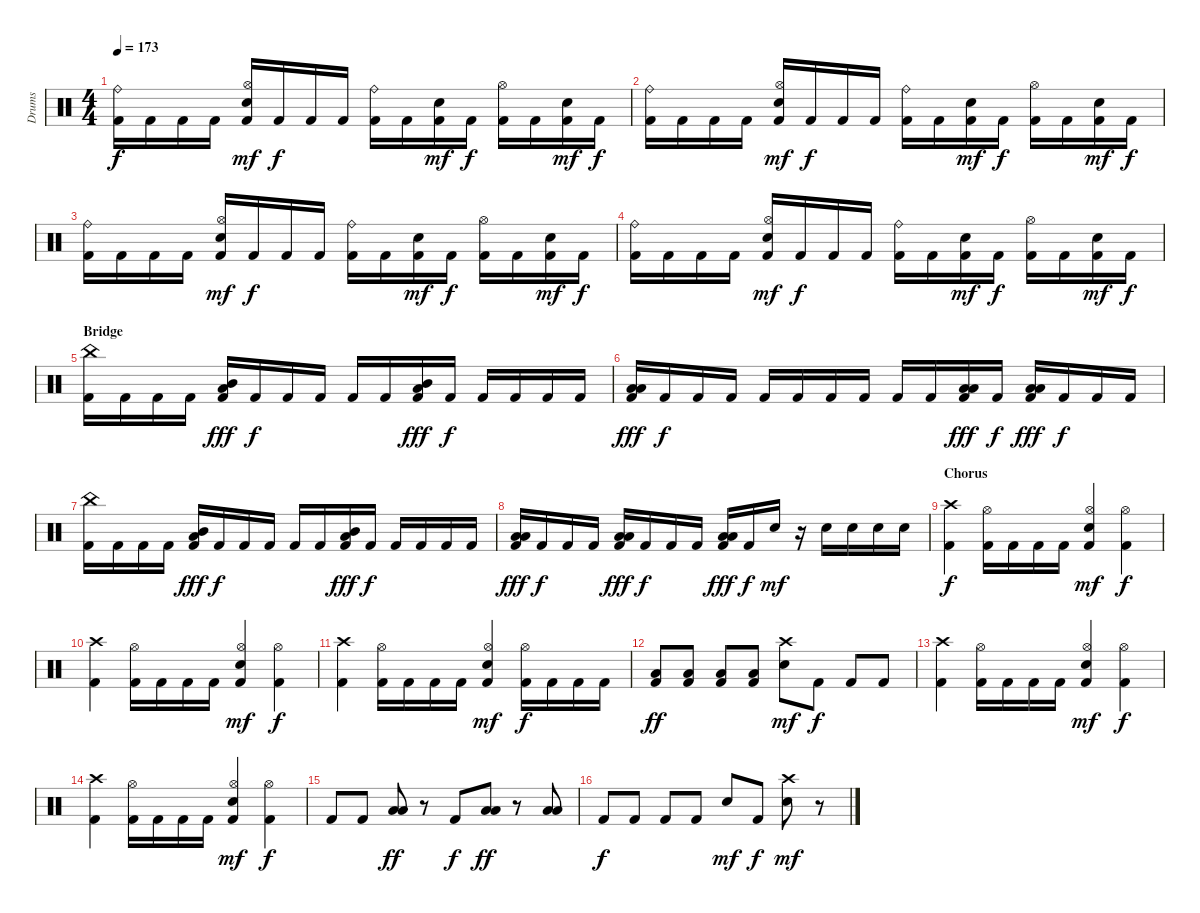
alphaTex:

\track ("Drums" "Drums") {instrument percussion}
\staff {score}
\articulation defaults
\ts (4 4)
\tempo 173
\clef neutral
\ks c
("Ride (bell)" "Kick (hit) 2").16{dy f} "Kick (hit) 2".16 "Kick (hit) 2".16 "Kick (hit) 2".16 ("Hi-Hat (open)" "Snare (hit) 2" "Kick (hit) 2").16{dy mf} "Kick (hit) 2".16{dy f} "Kick (hit) 2".16 "Kick (hit) 2".16 ("Ride (bell)" "Kick (hit) 2").16 "Kick (hit) 2".16 ("Snare (hit) 2" "Kick (hit) 2").16{dy mf} "Kick (hit) 2".16{dy f} ("Hi-Hat (open)" "Kick (hit) 2").16 "Kick (hit) 2".16 ("Snare (hit) 2" "Kick (hit) 2").16{dy mf} "Kick (hit) 2".16{dy f} |
("Ride (bell)" "Kick (hit) 2").16 "Kick (hit) 2".16 "Kick (hit) 2".16 "Kick (hit) 2".16 ("Hi-Hat (open)" "Snare (hit) 2" "Kick (hit) 2").16{dy mf} "Kick (hit) 2".16{dy f} "Kick (hit) 2".16 "Kick (hit) 2".16 ("Ride (bell)" "Kick (hit) 2").16 "Kick (hit) 2".16 ("Snare (hit) 2" "Kick (hit) 2").16{dy mf} "Kick (hit) 2".16{dy f} ("Hi-Hat (open)" "Kick (hit) 2").16 "Kick (hit) 2".16 ("Snare (hit) 2" "Kick (hit) 2").16{dy mf} "Kick (hit) 2".16{dy f} |
("Ride (bell)" "Kick (hit) 2").16 "Kick (hit) 2".16 "Kick (hit) 2".16 "Kick (hit) 2".16 ("Hi-Hat (open)" "Snare (hit) 2" "Kick (hit) 2").16{dy mf} "Kick (hit) 2".16{dy f} "Kick (hit) 2".16 "Kick (hit) 2".16 ("Ride (bell)" "Kick (hit) 2").16 "Kick (hit) 2".16 ("Snare (hit) 2" "Kick (hit) 2").16{dy mf} "Kick (hit) 2".16{dy f} ("Hi-Hat (open)" "Kick (hit) 2").16 "Kick (hit) 2".16 ("Snare (hit) 2" "Kick (hit) 2").16{dy mf} "Kick (hit) 2".16{dy f} |
("Ride (bell)" "Kick (hit) 2").16 "Kick (hit) 2".16 "Kick (hit) 2".16 "Kick (hit) 2".16 ("Hi-Hat (open)" "Snare (hit) 2" "Kick (hit) 2").16{dy mf} "Kick (hit) 2".16{dy f} "Kick (hit) 2".16 "Kick (hit) 2".16 ("Ride (bell)" "Kick (hit) 2").16 "Kick (hit) 2".16 ("Snare (hit) 2" "Kick (hit) 2").16{dy mf} "Kick (hit) 2".16{dy f} ("Hi-Hat (open)" "Kick (hit) 2").16 "Kick (hit) 2".16 ("Snare (hit) 2" "Kick (hit) 2").16{dy mf} "Kick (hit) 2".16{dy f} |
\section ("" "Bridge")
("China (hit)" "Kick (hit) 2").16 "Kick (hit) 2".16 "Kick (hit) 2".16 "Kick (hit) 2".16 ("Mid Tom (hit)" "Low Floor Tom (hit)" "Kick (hit) 2").16{dy fff} "Kick (hit) 2".16{dy f} "Kick (hit) 2".16 "Kick (hit) 2".16 "Kick (hit) 2".16 "Kick (hit) 2".16 ("Mid Tom (hit)" "Low Floor Tom (hit)" "Kick (hit) 2").16{dy fff} "Kick (hit) 2".16{dy f} "Kick (hit) 2".16 "Kick (hit) 2".16 "Kick (hit) 2".16 "Kick (hit) 2".16 |
("Low Tom (hit)" "Low Floor Tom (hit)" "Kick (hit) 2").16{dy fff} "Kick (hit) 2".16{dy f} "Kick (hit) 2".16 "Kick (hit) 2".16 "Kick (hit) 2".16 "Kick (hit) 2".16 "Kick (hit) 2".16 "Kick (hit) 2".16 "Kick (hit) 2".16 "Kick (hit) 2".16 ("Low Tom (hit)" "Low Floor Tom (hit)" "Kick (hit) 2").16{dy fff} "Kick (hit) 2".16{dy f} ("Low Tom (hit)" "Low Floor Tom (hit)" "Kick (hit) 2").16{dy fff} "Kick (hit) 2".16{dy f} "Kick (hit) 2".16 "Kick (hit) 2".16 |
("China (hit)" "Kick (hit) 2").16 "Kick (hit) 2".16 "Kick (hit) 2".16 "Kick (hit) 2".16 ("Mid Tom (hit)" "Low Floor Tom (hit)" "Kick (hit) 2").16{dy fff} "Kick (hit) 2".16{dy f} "Kick (hit) 2".16 "Kick (hit) 2".16 "Kick (hit) 2".16 "Kick (hit) 2".16 ("Mid Tom (hit)" "Low Floor Tom (hit)" "Kick (hit) 2").16{dy fff} "Kick (hit) 2".16{dy f} "Kick (hit) 2".16 "Kick (hit) 2".16 "Kick (hit) 2".16 "Kick (hit) 2".16 |
("Low Tom (hit)" "Low Floor Tom (hit)" "Kick (hit) 2").16{dy fff} "Kick (hit) 2".16{dy f} "Kick (hit) 2".16 "Kick (hit) 2".16 ("Low Tom (hit)" "Low Floor Tom (hit)" "Kick (hit) 2").16{dy fff} "Kick (hit) 2".16{dy f} "Kick (hit) 2".16 "Kick (hit) 2".16 ("Low Tom (hit)" "Low Floor Tom (hit)" "Kick (hit) 2").16{dy fff} "Kick (hit) 2".16{dy f} "Snare (hit) 2".16{dy mf} r.16 "Snare (hit) 2".16 "Snare (hit) 2".16 "Snare (hit) 2".16 "Snare (hit) 2".16 |
\section ("" "Chorus")
("Crash high (hit)" "Kick (hit) 2").4{dy f} ("Hi-Hat (open)" "Kick (hit) 2").16 "Kick (hit) 2".16 "Kick (hit) 2".16 "Kick (hit) 2".16 ("Hi-Hat (open)" "Snare (hit) 2" "Kick (hit) 2").4{dy mf} ("Hi-Hat (open)" "Kick (hit) 2").4{dy f} |
("Crash high (hit)" "Kick (hit) 2").4 ("Hi-Hat (open)" "Kick (hit) 2").16 "Kick (hit) 2".16 "Kick (hit) 2".16 "Kick (hit) 2".16 ("Hi-Hat (open)" "Snare (hit) 2" "Kick (hit) 2").4{dy mf} ("Hi-Hat (open)" "Kick (hit) 2").4{dy f} |
("Crash high (hit)" "Kick (hit) 2").4 ("Hi-Hat (open)" "Kick (hit) 2").16 "Kick (hit) 2".16 "Kick (hit) 2".16 "Kick (hit) 2".16 ("Hi-Hat (open)" "Snare (hit) 2" "Kick (hit) 2").4{dy mf} ("Hi-Hat (open)" "Kick (hit) 2").16{dy f} "Kick (hit) 2".16 "Kick (hit) 2".16 "Kick (hit) 2".16 |
("Low Tom (hit)" "Kick (hit) 2").8{dy ff} ("Low Tom (hit)" "Kick (hit) 2").8 ("Low Tom (hit)" "Kick (hit) 2").8 ("Low Tom (hit)" "Kick (hit) 2").8 ("Crash high (hit)" "Snare (hit) 2").8{dy mf} "Kick (hit) 2".8{dy f} "Kick (hit) 2".8 "Kick (hit) 2".8 |
("Crash high (hit)" "Kick (hit) 2").4 ("Hi-Hat (open)" "Kick (hit) 2").16 "Kick (hit) 2".16 "Kick (hit) 2".16 "Kick (hit) 2".16 ("Hi-Hat (open)" "Snare (hit) 2" "Kick (hit) 2").4{dy mf} ("Hi-Hat (open)" "Kick (hit) 2").4{dy f} |
("Crash high (hit)" "Kick (hit) 2").4 ("Hi-Hat (open)" "Kick (hit) 2").16 "Kick (hit) 2".16 "Kick (hit) 2".16 "Kick (hit) 2".16 ("Hi-Hat (open)" "Snare (hit) 2" "Kick (hit) 2").4{dy mf} ("Hi-Hat (open)" "Kick (hit) 2").4{dy f} |
"Kick (hit) 2".8 "Kick (hit) 2".8 ("Low Tom (hit)" "Low Floor Tom (hit)").8{dy ff} r.8 "Kick (hit) 2".8{dy f} ("Low Tom (hit)" "Low Floor Tom (hit)").8{dy ff} r.8 ("Low Tom (hit)" "Low Floor Tom (hit)").8 |
"Kick (hit) 2".8{dy f} "Kick (hit) 2".8 "Kick (hit) 2".8 "Kick (hit) 2".8 "Snare (hit) 2".8{dy mf} "Kick (hit) 2".8{dy f} ("Crash high (hit)" "Snare (hit) 2").8{dy mf} r.8
